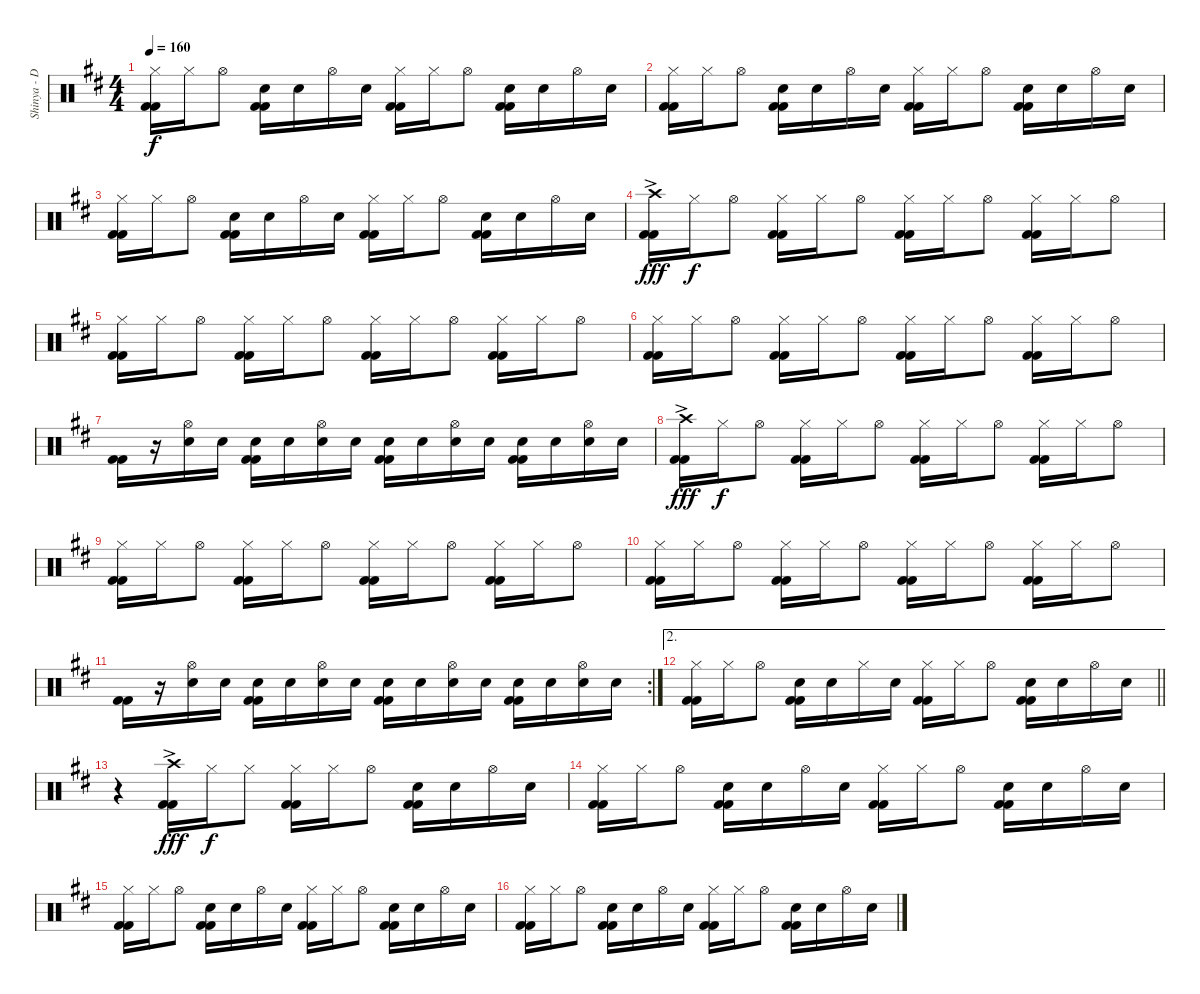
\track ("Shinya - Drums" "Shinya - D") {instrument percussion}
\staff {score}
\articulation defaults
\ts (4 4)
\tempo 160
\clef neutral
\ks d
("Hi-Hat (closed)" "Kick (hit) 2" "Kick (hit) 2").16{dy f} "Hi-Hat (closed)".16 "Hi-Hat (open)".8 ("Snare (hit) 2" "Kick (hit) 2" "Kick (hit) 2").16 "Snare (hit) 2".16 "Hi-Hat (open)".16 "Snare (hit) 2".16 ("Hi-Hat (closed)" "Kick (hit) 2" "Kick (hit) 2").16 "Hi-Hat (closed)".16 "Hi-Hat (open)".8 ("Snare (hit) 2" "Kick (hit) 2" "Kick (hit) 2").16 "Snare (hit) 2".16 "Hi-Hat (open)".16 "Snare (hit) 2".16 |
("Hi-Hat (closed)" "Kick (hit) 2" "Kick (hit) 2").16 "Hi-Hat (closed)".16 "Hi-Hat (open)".8 ("Snare (hit) 2" "Kick (hit) 2" "Kick (hit) 2").16 "Snare (hit) 2".16 "Hi-Hat (open)".16 "Snare (hit) 2".16 ("Hi-Hat (closed)" "Kick (hit) 2" "Kick (hit) 2").16 "Hi-Hat (closed)".16 "Hi-Hat (open)".8 ("Snare (hit) 2" "Kick (hit) 2" "Kick (hit) 2").16 "Snare (hit) 2".16 "Hi-Hat (open)".16 "Snare (hit) 2".16 |
("Hi-Hat (closed)" "Kick (hit) 2" "Kick (hit) 2").16 "Hi-Hat (closed)".16 "Hi-Hat (open)".8 ("Snare (hit) 2" "Kick (hit) 2" "Kick (hit) 2").16 "Snare (hit) 2".16 "Hi-Hat (open)".16 "Snare (hit) 2".16 ("Hi-Hat (closed)" "Kick (hit) 2" "Kick (hit) 2").16 "Hi-Hat (closed)".16 "Hi-Hat (open)".8 ("Snare (hit) 2" "Kick (hit) 2" "Kick (hit) 2").16 "Snare (hit) 2".16 "Hi-Hat (open)".16 "Snare (hit) 2".16 |
("Crash high (hit)"{ac} "Kick (hit) 2" "Kick (hit) 2").16{dy fff} "Hi-Hat (closed)".16{dy f} "Hi-Hat (open)".8 ("Hi-Hat (closed)" "Kick (hit) 2" "Kick (hit) 2").16 "Hi-Hat (closed)".16 "Hi-Hat (open)".8 ("Hi-Hat (closed)" "Kick (hit) 2" "Kick (hit) 2").16 "Hi-Hat (closed)".16 "Hi-Hat (open)".8 ("Hi-Hat (closed)" "Kick (hit) 2" "Kick (hit) 2").16 "Hi-Hat (closed)".16 "Hi-Hat (open)".8 |
("Hi-Hat (closed)" "Kick (hit) 2" "Kick (hit) 2").16 "Hi-Hat (closed)".16 "Hi-Hat (open)".8 ("Hi-Hat (closed)" "Kick (hit) 2" "Kick (hit) 2").16 "Hi-Hat (closed)".16 "Hi-Hat (open)".8 ("Hi-Hat (closed)" "Kick (hit) 2" "Kick (hit) 2").16 "Hi-Hat (closed)".16 "Hi-Hat (open)".8 ("Hi-Hat (closed)" "Kick (hit) 2" "Kick (hit) 2").16 "Hi-Hat (closed)".16 "Hi-Hat (open)".8 |
("Hi-Hat (closed)" "Kick (hit) 2" "Kick (hit) 2").16 "Hi-Hat (closed)".16 "Hi-Hat (open)".8 ("Hi-Hat (closed)" "Kick (hit) 2" "Kick (hit) 2").16 "Hi-Hat (closed)".16 "Hi-Hat (open)".8 ("Hi-Hat (closed)" "Kick (hit) 2" "Kick (hit) 2").16 "Hi-Hat (closed)".16 "Hi-Hat (open)".8 ("Hi-Hat (closed)" "Kick (hit) 2" "Kick (hit) 2").16 "Hi-Hat (closed)".16 "Hi-Hat (open)".8 |
("Kick (hit) 2" "Kick (hit) 2").16 r.16 ("Hi-Hat (open)" "Snare (hit) 2").16 "Snare (hit) 2".16 ("Snare (hit) 2" "Kick (hit) 2" "Kick (hit) 2").16 "Snare (hit) 2".16 ("Hi-Hat (open)" "Snare (hit) 2").16 "Snare (hit) 2".16 ("Snare (hit) 2" "Kick (hit) 2" "Kick (hit) 2").16 "Snare (hit) 2".16 ("Hi-Hat (open)" "Snare (hit) 2").16 "Snare (hit) 2".16 ("Snare (hit) 2" "Kick (hit) 2" "Kick (hit) 2").16 "Snare (hit) 2".16 ("Hi-Hat (open)" "Snare (hit) 2").16 "Snare (hit) 2".16 |
("Crash high (hit)"{ac} "Kick (hit) 2" "Kick (hit) 2").16{dy fff} "Hi-Hat (closed)".16{dy f} "Hi-Hat (open)".8 ("Hi-Hat (closed)" "Kick (hit) 2" "Kick (hit) 2").16 "Hi-Hat (closed)".16 "Hi-Hat (open)".8 ("Hi-Hat (closed)" "Kick (hit) 2" "Kick (hit) 2").16 "Hi-Hat (closed)".16 "Hi-Hat (open)".8 ("Hi-Hat (closed)" "Kick (hit) 2" "Kick (hit) 2").16 "Hi-Hat (closed)".16 "Hi-Hat (open)".8 |
("Hi-Hat (closed)" "Kick (hit) 2" "Kick (hit) 2").16 "Hi-Hat (closed)".16 "Hi-Hat (open)".8 ("Hi-Hat (closed)" "Kick (hit) 2" "Kick (hit) 2").16 "Hi-Hat (closed)".16 "Hi-Hat (open)".8 ("Hi-Hat (closed)" "Kick (hit) 2" "Kick (hit) 2").16 "Hi-Hat (closed)".16 "Hi-Hat (open)".8 ("Hi-Hat (closed)" "Kick (hit) 2" "Kick (hit) 2").16 "Hi-Hat (closed)".16 "Hi-Hat (open)".8 |
("Hi-Hat (closed)" "Kick (hit) 2" "Kick (hit) 2").16 "Hi-Hat (closed)".16 "Hi-Hat (open)".8 ("Hi-Hat (closed)" "Kick (hit) 2" "Kick (hit) 2").16 "Hi-Hat (closed)".16 "Hi-Hat (open)".8 ("Hi-Hat (closed)" "Kick (hit) 2" "Kick (hit) 2").16 "Hi-Hat (closed)".16 "Hi-Hat (open)".8 ("Hi-Hat (closed)" "Kick (hit) 2" "Kick (hit) 2").16 "Hi-Hat (closed)".16 "Hi-Hat (open)".8 |
\rc 2
("Kick (hit) 2" "Kick (hit) 2").16 r.16 ("Hi-Hat (open)" "Snare (hit) 2").16 "Snare (hit) 2".16 ("Snare (hit) 2" "Kick (hit) 2" "Kick (hit) 2").16 "Snare (hit) 2".16 ("Hi-Hat (open)" "Snare (hit) 2").16 "Snare (hit) 2".16 ("Snare (hit) 2" "Kick (hit) 2" "Kick (hit) 2").16 "Snare (hit) 2".16 ("Hi-Hat (open)" "Snare (hit) 2").16 "Snare (hit) 2".16 ("Snare (hit) 2" "Kick (hit) 2" "Kick (hit) 2").16 "Snare (hit) 2".16 ("Hi-Hat (open)" "Snare (hit) 2").16 "Snare (hit) 2".16 |
\ae 2
\barLineRight lightlight
("Hi-Hat (closed)" "Kick (hit) 2" "Kick (hit) 2").16 "Hi-Hat (closed)".16 "Hi-Hat (open)".8 ("Snare (hit) 2" "Kick (hit) 2" "Kick (hit) 2").16 "Snare (hit) 2".16 "Hi-Hat (closed)".16 "Snare (hit) 2".16 ("Hi-Hat (closed)" "Kick (hit) 2" "Kick (hit) 2").16 "Hi-Hat (closed)".16 "Hi-Hat (open)".8 ("Snare (hit) 2" "Kick (hit) 2" "Kick (hit) 2").16 "Snare (hit) 2".16 "Hi-Hat (open)".16 "Snare (hit) 2".16 |
r.4 ("Crash high (hit)"{ac} "Kick (hit) 2" "Kick (hit) 2").16{dy fff} "Hi-Hat (closed)".16{dy f} "Hi-Hat (closed)".8 ("Hi-Hat (closed)" "Kick (hit) 2" "Kick (hit) 2").16 "Hi-Hat (closed)".16 "Hi-Hat (open)".8 ("Snare (hit) 2" "Kick (hit) 2" "Kick (hit) 2").16 "Snare (hit) 2".16 "Hi-Hat (open)".16 "Snare (hit) 2".16 |
("Hi-Hat (closed)" "Kick (hit) 2" "Kick (hit) 2").16 "Hi-Hat (closed)".16 "Hi-Hat (open)".8 ("Snare (hit) 2" "Kick (hit) 2" "Kick (hit) 2").16 "Snare (hit) 2".16 "Hi-Hat (open)".16 "Snare (hit) 2".16 ("Hi-Hat (closed)" "Kick (hit) 2" "Kick (hit) 2").16 "Hi-Hat (closed)".16 "Hi-Hat (open)".8 ("Snare (hit) 2" "Kick (hit) 2" "Kick (hit) 2").16 "Snare (hit) 2".16 "Hi-Hat (open)".16 "Snare (hit) 2".16 |
("Hi-Hat (closed)" "Kick (hit) 2" "Kick (hit) 2").16 "Hi-Hat (closed)".16 "Hi-Hat (open)".8 ("Snare (hit) 2" "Kick (hit) 2" "Kick (hit) 2").16 "Snare (hit) 2".16 "Hi-Hat (open)".16 "Snare (hit) 2".16 ("Hi-Hat (closed)" "Kick (hit) 2" "Kick (hit) 2").16 "Hi-Hat (closed)".16 "Hi-Hat (open)".8 ("Snare (hit) 2" "Kick (hit) 2" "Kick (hit) 2").16 "Snare (hit) 2".16 "Hi-Hat (open)".16 "Snare (hit) 2".16 |
("Hi-Hat (closed)" "Kick (hit) 2" "Kick (hit) 2").16 "Hi-Hat (closed)".16 "Hi-Hat (open)".8 ("Snare (hit) 2" "Kick (hit) 2" "Kick (hit) 2").16 "Snare (hit) 2".16 "Hi-Hat (open)".16 "Snare (hit) 2".16 ("Hi-Hat (closed)" "Kick (hit) 2" "Kick (hit) 2").16 "Hi-Hat (closed)".16 "Hi-Hat (open)".8 ("Snare (hit) 2" "Kick (hit) 2" "Kick (hit) 2").16 "Snare (hit) 2".16 "Hi-Hat (open)".16 "Snare (hit) 2".16
